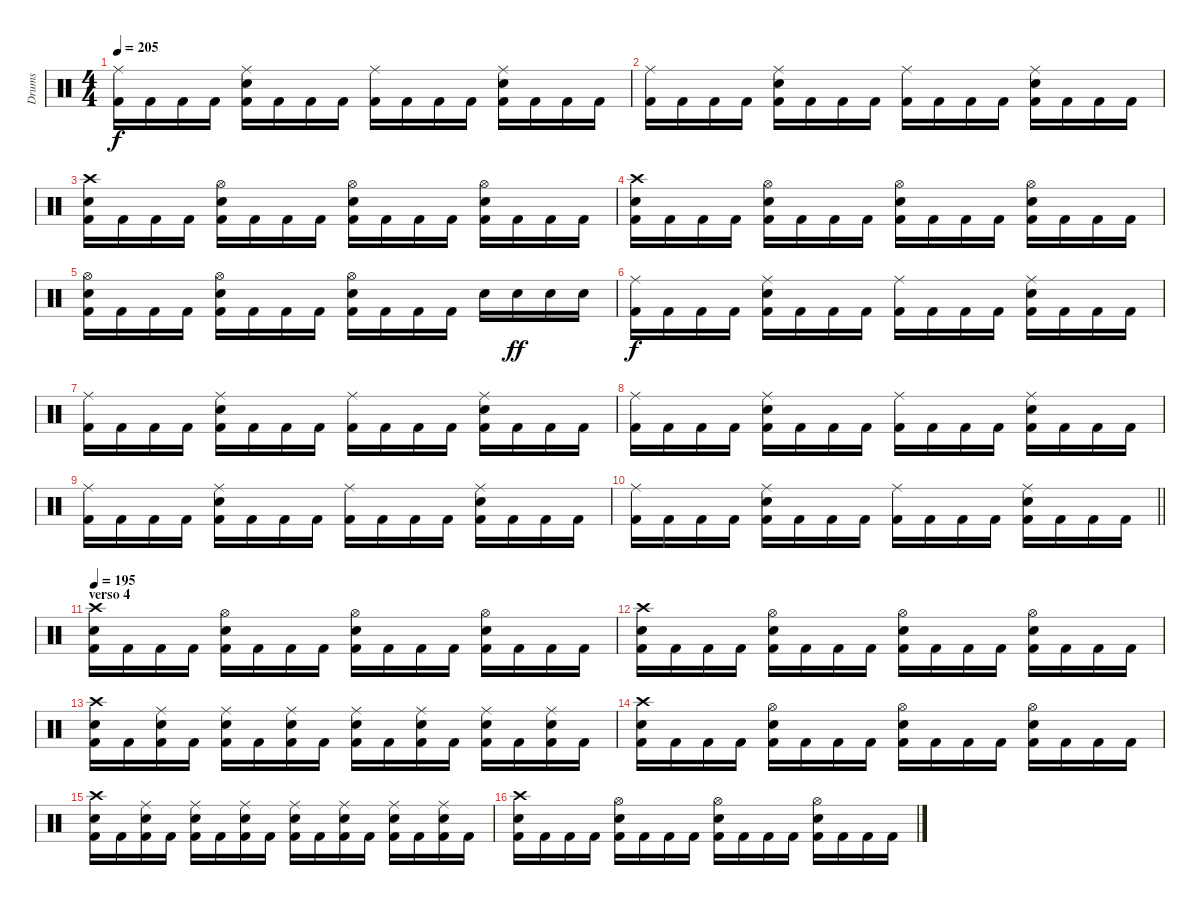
\track ("Drums" "Drums") {instrument percussion}
\staff {score}
\articulation defaults
\ts (4 4)
\tempo 205
\clef neutral
\ks c
("Ride (middle)" "Kick (hit) 2").16{dy f} "Kick (hit) 2".16 "Kick (hit) 2".16 "Kick (hit) 2".16 ("Ride (middle)" "Electric Snare (hit)" "Kick (hit) 2").16 "Kick (hit) 2".16 "Kick (hit) 2".16 "Kick (hit) 2".16 ("Ride (middle)" "Kick (hit) 2").16 "Kick (hit) 2".16 "Kick (hit) 2".16 "Kick (hit) 2".16 ("Ride (middle)" "Electric Snare (hit)" "Kick (hit) 2").16 "Kick (hit) 2".16 "Kick (hit) 2".16 "Kick (hit) 2".16 |
("Ride (middle)" "Kick (hit) 2").16 "Kick (hit) 2".16 "Kick (hit) 2".16 "Kick (hit) 2".16 ("Ride (middle)" "Electric Snare (hit)" "Kick (hit) 2").16 "Kick (hit) 2".16 "Kick (hit) 2".16 "Kick (hit) 2".16 ("Ride (middle)" "Kick (hit) 2").16 "Kick (hit) 2".16 "Kick (hit) 2".16 "Kick (hit) 2".16 ("Ride (middle)" "Electric Snare (hit)" "Kick (hit) 2").16 "Kick (hit) 2".16 "Kick (hit) 2".16 "Kick (hit) 2".16 |
("Kick (hit) 2" "Crash high (hit)" "Electric Snare (hit)").16 "Kick (hit) 2".16 "Kick (hit) 2".16 "Kick (hit) 2".16 ("Kick (hit) 2" "Electric Snare (hit)" "Hi-Hat (open)").16 "Kick (hit) 2".16 "Kick (hit) 2".16 "Kick (hit) 2".16 ("Kick (hit) 2" "Electric Snare (hit)" "Hi-Hat (open)").16 "Kick (hit) 2".16 "Kick (hit) 2".16 "Kick (hit) 2".16 ("Kick (hit) 2" "Electric Snare (hit)" "Hi-Hat (open)").16 "Kick (hit) 2".16 "Kick (hit) 2".16 "Kick (hit) 2".16 |
("Kick (hit) 2" "Crash high (hit)" "Electric Snare (hit)").16 "Kick (hit) 2".16 "Kick (hit) 2".16 "Kick (hit) 2".16 ("Kick (hit) 2" "Electric Snare (hit)" "Hi-Hat (open)").16 "Kick (hit) 2".16 "Kick (hit) 2".16 "Kick (hit) 2".16 ("Kick (hit) 2" "Electric Snare (hit)" "Hi-Hat (open)").16 "Kick (hit) 2".16 "Kick (hit) 2".16 "Kick (hit) 2".16 ("Kick (hit) 2" "Electric Snare (hit)" "Hi-Hat (open)").16 "Kick (hit) 2".16 "Kick (hit) 2".16 "Kick (hit) 2".16 |
("Kick (hit) 2" "Hi-Hat (open)" "Electric Snare (hit)").16 "Kick (hit) 2".16 "Kick (hit) 2".16 "Kick (hit) 2".16 ("Kick (hit) 2" "Electric Snare (hit)" "Hi-Hat (open)").16 "Kick (hit) 2".16 "Kick (hit) 2".16 "Kick (hit) 2".16 ("Kick (hit) 2" "Electric Snare (hit)" "Hi-Hat (open)").16 "Kick (hit) 2".16 "Kick (hit) 2".16 "Kick (hit) 2".16 "Electric Snare (hit)".16 "Electric Snare (hit)".16{dy ff} "Electric Snare (hit)".16 "Electric Snare (hit)".16 |
("Ride (middle)" "Kick (hit) 2").16{dy f} "Kick (hit) 2".16 "Kick (hit) 2".16 "Kick (hit) 2".16 ("Ride (middle)" "Electric Snare (hit)" "Kick (hit) 2").16 "Kick (hit) 2".16 "Kick (hit) 2".16 "Kick (hit) 2".16 ("Ride (middle)" "Kick (hit) 2").16 "Kick (hit) 2".16 "Kick (hit) 2".16 "Kick (hit) 2".16 ("Ride (middle)" "Electric Snare (hit)" "Kick (hit) 2").16 "Kick (hit) 2".16 "Kick (hit) 2".16 "Kick (hit) 2".16 |
("Ride (middle)" "Kick (hit) 2").16 "Kick (hit) 2".16 "Kick (hit) 2".16 "Kick (hit) 2".16 ("Ride (middle)" "Electric Snare (hit)" "Kick (hit) 2").16 "Kick (hit) 2".16 "Kick (hit) 2".16 "Kick (hit) 2".16 ("Ride (middle)" "Kick (hit) 2").16 "Kick (hit) 2".16 "Kick (hit) 2".16 "Kick (hit) 2".16 ("Ride (middle)" "Electric Snare (hit)" "Kick (hit) 2").16 "Kick (hit) 2".16 "Kick (hit) 2".16 "Kick (hit) 2".16 |
("Ride (middle)" "Kick (hit) 2").16 "Kick (hit) 2".16 "Kick (hit) 2".16 "Kick (hit) 2".16 ("Ride (middle)" "Electric Snare (hit)" "Kick (hit) 2").16 "Kick (hit) 2".16 "Kick (hit) 2".16 "Kick (hit) 2".16 ("Ride (middle)" "Kick (hit) 2").16 "Kick (hit) 2".16 "Kick (hit) 2".16 "Kick (hit) 2".16 ("Ride (middle)" "Electric Snare (hit)" "Kick (hit) 2").16 "Kick (hit) 2".16 "Kick (hit) 2".16 "Kick (hit) 2".16 |
("Ride (middle)" "Kick (hit) 2").16 "Kick (hit) 2".16 "Kick (hit) 2".16 "Kick (hit) 2".16 ("Ride (middle)" "Electric Snare (hit)" "Kick (hit) 2").16 "Kick (hit) 2".16 "Kick (hit) 2".16 "Kick (hit) 2".16 ("Ride (middle)" "Kick (hit) 2").16 "Kick (hit) 2".16 "Kick (hit) 2".16 "Kick (hit) 2".16 ("Ride (middle)" "Electric Snare (hit)" "Kick (hit) 2").16 "Kick (hit) 2".16 "Kick (hit) 2".16 "Kick (hit) 2".16 |
\barLineRight lightlight
("Ride (middle)" "Kick (hit) 2").16 "Kick (hit) 2".16 "Kick (hit) 2".16 "Kick (hit) 2".16 ("Ride (middle)" "Electric Snare (hit)" "Kick (hit) 2").16 "Kick (hit) 2".16 "Kick (hit) 2".16 "Kick (hit) 2".16 ("Ride (middle)" "Kick (hit) 2").16 "Kick (hit) 2".16 "Kick (hit) 2".16 "Kick (hit) 2".16 ("Ride (middle)" "Electric Snare (hit)" "Kick (hit) 2").16 "Kick (hit) 2".16 "Kick (hit) 2".16 "Kick (hit) 2".16 |
\section ("" "verso 4")
\tempo 195
("Kick (hit) 2" "Crash high (hit)" "Electric Snare (hit)").16 "Kick (hit) 2".16 "Kick (hit) 2".16 "Kick (hit) 2".16 ("Kick (hit) 2" "Electric Snare (hit)" "Hi-Hat (open)").16 "Kick (hit) 2".16 "Kick (hit) 2".16 "Kick (hit) 2".16 ("Kick (hit) 2" "Electric Snare (hit)" "Hi-Hat (open)").16 "Kick (hit) 2".16 "Kick (hit) 2".16 "Kick (hit) 2".16 ("Kick (hit) 2" "Electric Snare (hit)" "Hi-Hat (open)").16 "Kick (hit) 2".16 "Kick (hit) 2".16 "Kick (hit) 2".16 |
("Kick (hit) 2" "Crash high (hit)" "Electric Snare (hit)").16 "Kick (hit) 2".16 "Kick (hit) 2".16 "Kick (hit) 2".16 ("Kick (hit) 2" "Electric Snare (hit)" "Hi-Hat (open)").16 "Kick (hit) 2".16 "Kick (hit) 2".16 "Kick (hit) 2".16 ("Kick (hit) 2" "Electric Snare (hit)" "Hi-Hat (open)").16 "Kick (hit) 2".16 "Kick (hit) 2".16 "Kick (hit) 2".16 ("Kick (hit) 2" "Electric Snare (hit)" "Hi-Hat (open)").16 "Kick (hit) 2".16 "Kick (hit) 2".16 "Kick (hit) 2".16 |
("Kick (hit) 2" "Electric Snare (hit)" "Crash high (hit)").16 "Kick (hit) 2".16 ("Kick (hit) 2" "Electric Snare (hit)" "Ride (middle)").16 "Kick (hit) 2".16 ("Kick (hit) 2" "Electric Snare (hit)" "Ride (middle)").16 "Kick (hit) 2".16 ("Kick (hit) 2" "Electric Snare (hit)" "Ride (middle)").16 "Kick (hit) 2".16 ("Kick (hit) 2" "Electric Snare (hit)" "Ride (middle)").16 "Kick (hit) 2".16 ("Kick (hit) 2" "Electric Snare (hit)" "Ride (middle)").16 "Kick (hit) 2".16 ("Kick (hit) 2" "Electric Snare (hit)" "Ride (middle)").16 "Kick (hit) 2".16 ("Kick (hit) 2" "Electric Snare (hit)" "Ride (middle)").16 "Kick (hit) 2".16 |
("Kick (hit) 2" "Crash high (hit)" "Electric Snare (hit)").16 "Kick (hit) 2".16 "Kick (hit) 2".16 "Kick (hit) 2".16 ("Kick (hit) 2" "Electric Snare (hit)" "Hi-Hat (open)").16 "Kick (hit) 2".16 "Kick (hit) 2".16 "Kick (hit) 2".16 ("Kick (hit) 2" "Electric Snare (hit)" "Hi-Hat (open)").16 "Kick (hit) 2".16 "Kick (hit) 2".16 "Kick (hit) 2".16 ("Kick (hit) 2" "Electric Snare (hit)" "Hi-Hat (open)").16 "Kick (hit) 2".16 "Kick (hit) 2".16 "Kick (hit) 2".16 |
("Kick (hit) 2" "Electric Snare (hit)" "Crash high (hit)").16 "Kick (hit) 2".16 ("Kick (hit) 2" "Electric Snare (hit)" "Ride (middle)").16 "Kick (hit) 2".16 ("Kick (hit) 2" "Electric Snare (hit)" "Ride (middle)").16 "Kick (hit) 2".16 ("Kick (hit) 2" "Electric Snare (hit)" "Ride (middle)").16 "Kick (hit) 2".16 ("Kick (hit) 2" "Electric Snare (hit)" "Ride (middle)").16 "Kick (hit) 2".16 ("Kick (hit) 2" "Electric Snare (hit)" "Ride (middle)").16 "Kick (hit) 2".16 ("Kick (hit) 2" "Electric Snare (hit)" "Ride (middle)").16 "Kick (hit) 2".16 ("Kick (hit) 2" "Electric Snare (hit)" "Ride (middle)").16 "Kick (hit) 2".16 |
("Kick (hit) 2" "Crash high (hit)" "Electric Snare (hit)").16 "Kick (hit) 2".16 "Kick (hit) 2".16 "Kick (hit) 2".16 ("Kick (hit) 2" "Electric Snare (hit)" "Hi-Hat (open)").16 "Kick (hit) 2".16 "Kick (hit) 2".16 "Kick (hit) 2".16 ("Kick (hit) 2" "Electric Snare (hit)" "Hi-Hat (open)").16 "Kick (hit) 2".16 "Kick (hit) 2".16 "Kick (hit) 2".16 ("Kick (hit) 2" "Electric Snare (hit)" "Hi-Hat (open)").16 "Kick (hit) 2".16 "Kick (hit) 2".16 "Kick (hit) 2".16
